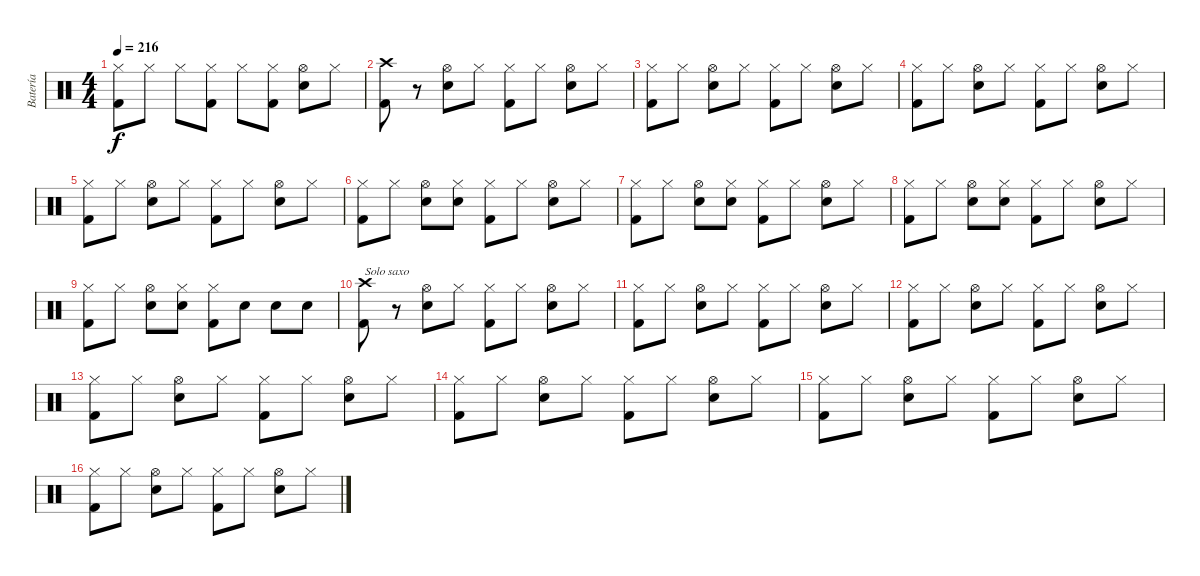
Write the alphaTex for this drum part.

\track ("Batería" "Batería") {instrument percussion}
\staff {score}
\articulation defaults
\ts (4 4)
\tempo 216
\clef neutral
\ks c
("Kick (hit) 2" "Hi-Hat (closed)").8{dy f} "Hi-Hat (closed)".8 "Hi-Hat (closed)".8 ("Kick (hit) 2" "Hi-Hat (closed)").8 "Hi-Hat (closed)".8 ("Kick (hit) 2" "Hi-Hat (closed)").8 ("Electric Snare (hit)" "Hi-Hat (open)").8 "Hi-Hat (closed)".8 |
("Kick (hit) 2" "Crash high (hit)").8 r.8 ("Electric Snare (hit)" "Hi-Hat (open)").8 "Hi-Hat (closed)".8 ("Kick (hit) 2" "Hi-Hat (closed)").8 "Hi-Hat (closed)".8 ("Electric Snare (hit)" "Hi-Hat (open)").8 "Hi-Hat (closed)".8 |
("Kick (hit) 2" "Hi-Hat (closed)").8 "Hi-Hat (closed)".8 ("Electric Snare (hit)" "Hi-Hat (open)").8 "Hi-Hat (closed)".8 ("Kick (hit) 2" "Hi-Hat (closed)").8 "Hi-Hat (closed)".8 ("Electric Snare (hit)" "Hi-Hat (open)").8 "Hi-Hat (closed)".8 |
("Kick (hit) 2" "Hi-Hat (closed)").8 "Hi-Hat (closed)".8 ("Electric Snare (hit)" "Hi-Hat (open)").8 "Hi-Hat (closed)".8 ("Kick (hit) 2" "Hi-Hat (closed)").8 "Hi-Hat (closed)".8 ("Electric Snare (hit)" "Hi-Hat (open)").8 "Hi-Hat (closed)".8 |
("Kick (hit) 2" "Hi-Hat (closed)").8 "Hi-Hat (closed)".8 ("Electric Snare (hit)" "Hi-Hat (open)").8 "Hi-Hat (closed)".8 ("Kick (hit) 2" "Hi-Hat (closed)").8 "Hi-Hat (closed)".8 ("Electric Snare (hit)" "Hi-Hat (open)").8 "Hi-Hat (closed)".8 |
("Kick (hit) 2" "Hi-Hat (closed)").8 "Hi-Hat (closed)".8 ("Electric Snare (hit)" "Hi-Hat (open)").8 ("Electric Snare (hit)" "Hi-Hat (closed)").8 ("Kick (hit) 2" "Hi-Hat (closed)").8 "Hi-Hat (closed)".8 ("Electric Snare (hit)" "Hi-Hat (open)").8 "Hi-Hat (closed)".8 |
("Kick (hit) 2" "Hi-Hat (closed)").8 "Hi-Hat (closed)".8 ("Electric Snare (hit)" "Hi-Hat (open)").8 ("Electric Snare (hit)" "Hi-Hat (closed)").8 ("Kick (hit) 2" "Hi-Hat (closed)").8 "Hi-Hat (closed)".8 ("Electric Snare (hit)" "Hi-Hat (open)").8 "Hi-Hat (closed)".8 |
("Kick (hit) 2" "Hi-Hat (closed)").8 "Hi-Hat (closed)".8 ("Electric Snare (hit)" "Hi-Hat (open)").8 ("Electric Snare (hit)" "Hi-Hat (closed)").8 ("Kick (hit) 2" "Hi-Hat (closed)").8 "Hi-Hat (closed)".8 ("Electric Snare (hit)" "Hi-Hat (open)").8 "Hi-Hat (closed)".8 |
("Kick (hit) 2" "Hi-Hat (closed)").8 "Hi-Hat (closed)".8 ("Electric Snare (hit)" "Hi-Hat (open)").8 ("Electric Snare (hit)" "Hi-Hat (closed)").8 ("Kick (hit) 2" "Hi-Hat (closed)").8 "Electric Snare (hit)".8 "Electric Snare (hit)".8 "Electric Snare (hit)".8 |
("Kick (hit) 2" "Crash high (hit)").8{txt "Solo saxo"} r.8 ("Electric Snare (hit)" "Hi-Hat (open)").8 "Hi-Hat (closed)".8 ("Kick (hit) 2" "Hi-Hat (closed)").8 "Hi-Hat (closed)".8 ("Electric Snare (hit)" "Hi-Hat (open)").8 "Hi-Hat (closed)".8 |
("Kick (hit) 2" "Hi-Hat (closed)").8 "Hi-Hat (closed)".8 ("Electric Snare (hit)" "Hi-Hat (open)").8 "Hi-Hat (closed)".8 ("Kick (hit) 2" "Hi-Hat (closed)").8 "Hi-Hat (closed)".8 ("Electric Snare (hit)" "Hi-Hat (open)").8 "Hi-Hat (closed)".8 |
("Kick (hit) 2" "Hi-Hat (closed)").8 "Hi-Hat (closed)".8 ("Electric Snare (hit)" "Hi-Hat (open)").8 "Hi-Hat (closed)".8 ("Kick (hit) 2" "Hi-Hat (closed)").8 "Hi-Hat (closed)".8 ("Electric Snare (hit)" "Hi-Hat (open)").8 "Hi-Hat (closed)".8 |
("Kick (hit) 2" "Hi-Hat (closed)").8 "Hi-Hat (closed)".8 ("Electric Snare (hit)" "Hi-Hat (open)").8 "Hi-Hat (closed)".8 ("Kick (hit) 2" "Hi-Hat (closed)").8 "Hi-Hat (closed)".8 ("Electric Snare (hit)" "Hi-Hat (open)").8 "Hi-Hat (closed)".8 |
("Kick (hit) 2" "Hi-Hat (closed)").8 "Hi-Hat (closed)".8 ("Electric Snare (hit)" "Hi-Hat (open)").8 "Hi-Hat (closed)".8 ("Kick (hit) 2" "Hi-Hat (closed)").8 "Hi-Hat (closed)".8 ("Electric Snare (hit)" "Hi-Hat (open)").8 "Hi-Hat (closed)".8 |
("Kick (hit) 2" "Hi-Hat (closed)").8 "Hi-Hat (closed)".8 ("Electric Snare (hit)" "Hi-Hat (open)").8 "Hi-Hat (closed)".8 ("Kick (hit) 2" "Hi-Hat (closed)").8 "Hi-Hat (closed)".8 ("Electric Snare (hit)" "Hi-Hat (open)").8 "Hi-Hat (closed)".8 |
("Kick (hit) 2" "Hi-Hat (closed)").8 "Hi-Hat (closed)".8 ("Electric Snare (hit)" "Hi-Hat (open)").8 "Hi-Hat (closed)".8 ("Kick (hit) 2" "Hi-Hat (closed)").8 "Hi-Hat (closed)".8 ("Electric Snare (hit)" "Hi-Hat (open)").8 "Hi-Hat (closed)".8
